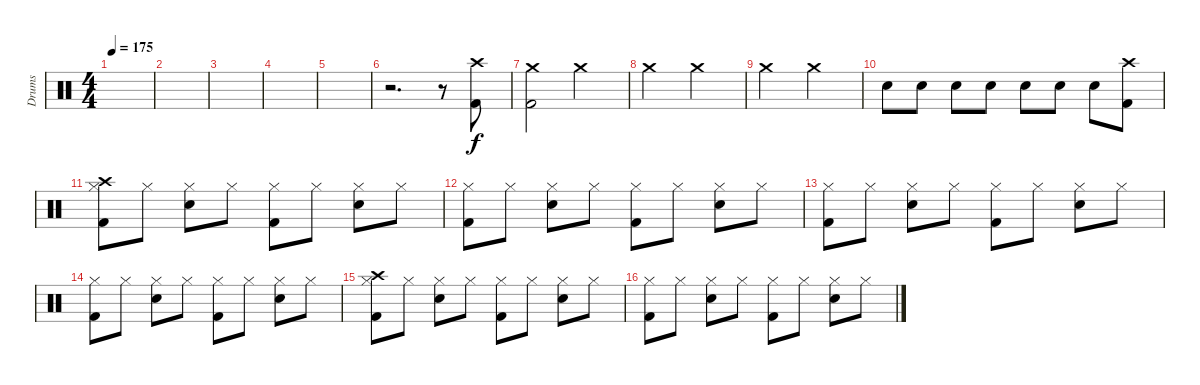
\track ("Drums" "Drums") {instrument percussion}
\staff {score}
\articulation defaults
\ts (4 4)
\tempo 175
\clef neutral
\ks c
|
|
|
|
|
r.2{d} r.8 ("Crash high (hit)" "Kick (hit) 2").8 |
("Crash medium (hit)" "Kick (hit) 2").2 "Crash medium (hit)".2 |
"Crash medium (hit)".2 "Crash medium (hit)".2 |
"Crash medium (hit)".2 "Crash medium (hit)".2 |
"Electric Snare (hit)".8 "Electric Snare (hit)".8 "Electric Snare (hit)".8 "Electric Snare (hit)".8 "Electric Snare (hit)".8 "Electric Snare (hit)".8 "Electric Snare (hit)".8 ("Crash high (hit)" "Kick (hit) 2").8 |
("Crash high (hit)" "Hi-Hat (closed)" "Kick (hit) 2").8 "Hi-Hat (closed)".8 ("Hi-Hat (closed)" "Snare (hit) 2").8 "Hi-Hat (closed)".8 ("Hi-Hat (closed)" "Kick (hit) 2").8 "Hi-Hat (closed)".8 ("Hi-Hat (closed)" "Snare (hit) 2").8 "Hi-Hat (closed)".8 |
("Hi-Hat (closed)" "Kick (hit) 2").8 "Hi-Hat (closed)".8 ("Hi-Hat (closed)" "Snare (hit) 2").8 "Hi-Hat (closed)".8 ("Hi-Hat (closed)" "Kick (hit) 2").8 "Hi-Hat (closed)".8 ("Hi-Hat (closed)" "Snare (hit) 2").8 "Hi-Hat (closed)".8 |
("Hi-Hat (closed)" "Kick (hit) 2").8 "Hi-Hat (closed)".8 ("Hi-Hat (closed)" "Snare (hit) 2").8 "Hi-Hat (closed)".8 ("Hi-Hat (closed)" "Kick (hit) 2").8 "Hi-Hat (closed)".8 ("Hi-Hat (closed)" "Snare (hit) 2").8 "Hi-Hat (closed)".8 |
("Hi-Hat (closed)" "Kick (hit) 2").8 "Hi-Hat (closed)".8 ("Hi-Hat (closed)" "Snare (hit) 2").8 "Hi-Hat (closed)".8 ("Hi-Hat (closed)" "Kick (hit) 2").8 "Hi-Hat (closed)".8 ("Hi-Hat (closed)" "Snare (hit) 2").8 "Hi-Hat (closed)".8 |
("Crash high (hit)" "Hi-Hat (closed)" "Kick (hit) 2").8 "Hi-Hat (closed)".8 ("Hi-Hat (closed)" "Snare (hit) 2").8 "Hi-Hat (closed)".8 ("Hi-Hat (closed)" "Kick (hit) 2").8 "Hi-Hat (closed)".8 ("Hi-Hat (closed)" "Snare (hit) 2").8 "Hi-Hat (closed)".8 |
("Hi-Hat (closed)" "Kick (hit) 2").8 "Hi-Hat (closed)".8 ("Hi-Hat (closed)" "Snare (hit) 2").8 "Hi-Hat (closed)".8 ("Hi-Hat (closed)" "Kick (hit) 2").8 "Hi-Hat (closed)".8 ("Hi-Hat (closed)" "Snare (hit) 2").8 "Hi-Hat (closed)".8
